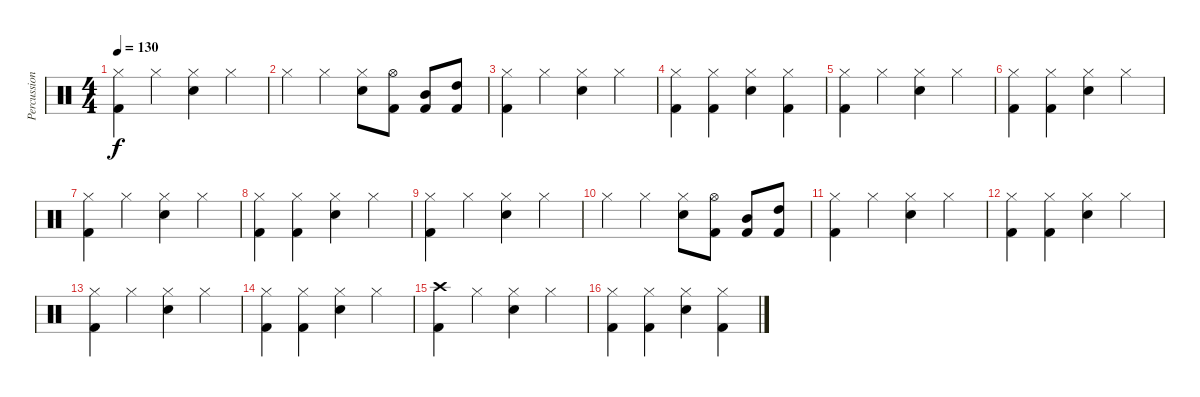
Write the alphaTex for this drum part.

\track ("Percussion" "Percussion") {instrument percussion}
\staff {score}
\articulation defaults
\ts (4 4)
\tempo 130
\clef neutral
\ks c
("Hi-Hat (closed)" "Kick (hit) 2").4{dy f} "Hi-Hat (closed)".4 ("Snare (hit) 2" "Hi-Hat (closed)").4 "Hi-Hat (closed)".4 |
"Hi-Hat (closed)".4 "Hi-Hat (closed)".4 ("Hi-Hat (closed)" "Snare (hit) 2").8 ("Kick (hit) 2" "Hi-Hat (open)").8 ("Mid Tom (hit)" "Kick (hit) 2").8 ("High Tom (hit)" "Kick (hit) 2").8 |
("Hi-Hat (closed)" "Kick (hit) 2").4 "Hi-Hat (closed)".4 ("Snare (hit) 2" "Hi-Hat (closed)").4 "Hi-Hat (closed)".4 |
("Hi-Hat (closed)" "Kick (hit) 2").4 ("Hi-Hat (closed)" "Kick (hit) 2").4 ("Hi-Hat (closed)" "Snare (hit) 2").4 ("Kick (hit) 2" "Hi-Hat (closed)").4 |
("Hi-Hat (closed)" "Kick (hit) 2").4 "Hi-Hat (closed)".4 ("Snare (hit) 2" "Hi-Hat (closed)").4 "Hi-Hat (closed)".4 |
("Hi-Hat (closed)" "Kick (hit) 2").4 ("Hi-Hat (closed)" "Kick (hit) 2").4 ("Hi-Hat (closed)" "Snare (hit) 2").4 "Hi-Hat (closed)".4 |
("Hi-Hat (closed)" "Kick (hit) 2").4 "Hi-Hat (closed)".4 ("Snare (hit) 2" "Hi-Hat (closed)").4 "Hi-Hat (closed)".4 |
("Hi-Hat (closed)" "Kick (hit) 2").4 ("Hi-Hat (closed)" "Kick (hit) 2").4 ("Hi-Hat (closed)" "Snare (hit) 2").4 "Hi-Hat (closed)".4 |
("Hi-Hat (closed)" "Kick (hit) 2").4 "Hi-Hat (closed)".4 ("Snare (hit) 2" "Hi-Hat (closed)").4 "Hi-Hat (closed)".4 |
"Hi-Hat (closed)".4 "Hi-Hat (closed)".4 ("Hi-Hat (closed)" "Snare (hit) 2").8 ("Kick (hit) 2" "Hi-Hat (open)").8 ("Mid Tom (hit)" "Kick (hit) 2").8 ("High Tom (hit)" "Kick (hit) 2").8 |
("Hi-Hat (closed)" "Kick (hit) 2").4 "Hi-Hat (closed)".4 ("Snare (hit) 2" "Hi-Hat (closed)").4 "Hi-Hat (closed)".4 |
("Hi-Hat (closed)" "Kick (hit) 2").4 ("Hi-Hat (closed)" "Kick (hit) 2").4 ("Hi-Hat (closed)" "Snare (hit) 2").4 "Hi-Hat (closed)".4 |
("Hi-Hat (closed)" "Kick (hit) 2").4 "Hi-Hat (closed)".4 ("Snare (hit) 2" "Hi-Hat (closed)").4 "Hi-Hat (closed)".4 |
("Hi-Hat (closed)" "Kick (hit) 2").4 ("Hi-Hat (closed)" "Kick (hit) 2").4 ("Hi-Hat (closed)" "Snare (hit) 2").4 "Hi-Hat (closed)".4 |
("Crash high (hit)" "Kick (hit) 2").4 "Hi-Hat (closed)".4 ("Snare (hit) 2" "Hi-Hat (closed)").4 "Hi-Hat (closed)".4 |
("Hi-Hat (closed)" "Kick (hit) 2").4 ("Hi-Hat (closed)" "Kick (hit) 2").4 ("Hi-Hat (closed)" "Snare (hit) 2").4 ("Kick (hit) 2" "Hi-Hat (closed)").4
